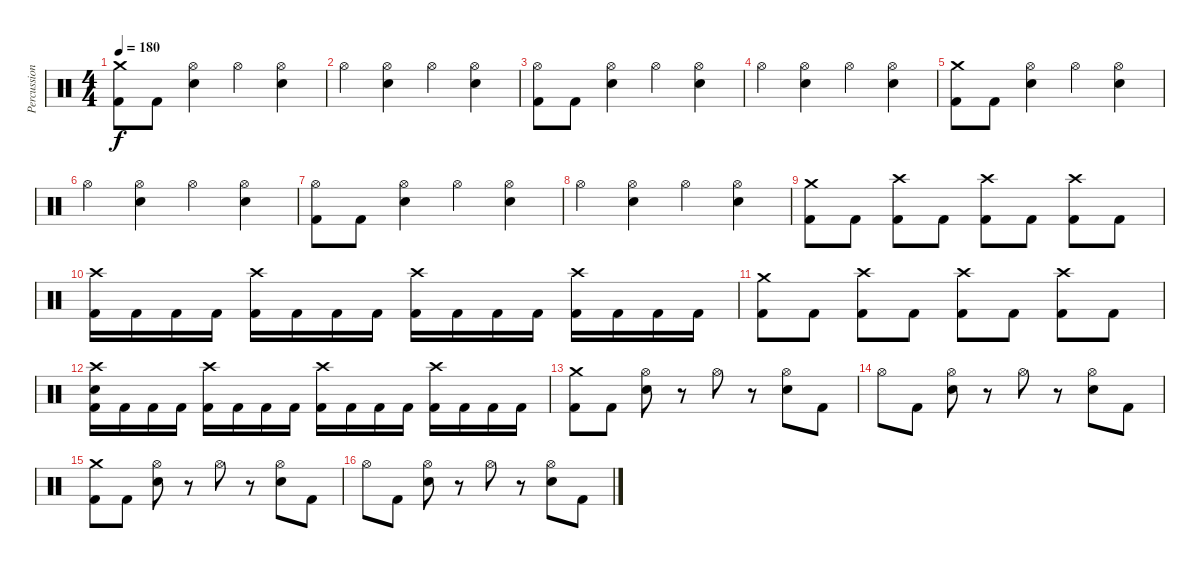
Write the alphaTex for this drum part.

\track ("Percussion" "Percussion") {instrument percussion}
\staff {score}
\articulation defaults
\ts (4 4)
\tempo 180
\clef neutral
\ks c
("Crash medium (hit)" "Kick (hit) 2").8{dy f} "Kick (hit) 2".8 ("Hi-Hat (open)" "Snare (hit) 2").4 "Hi-Hat (open)".4 ("Hi-Hat (open)" "Snare (hit) 2").4 |
"Hi-Hat (open)".4 ("Hi-Hat (open)" "Snare (hit) 2").4 "Hi-Hat (open)".4 ("Hi-Hat (open)" "Snare (hit) 2").4 |
("Hi-Hat (open)" "Kick (hit) 2").8 "Kick (hit) 2".8 ("Hi-Hat (open)" "Snare (hit) 2").4 "Hi-Hat (open)".4 ("Hi-Hat (open)" "Snare (hit) 2").4 |
"Hi-Hat (open)".4 ("Hi-Hat (open)" "Snare (hit) 2").4 "Hi-Hat (open)".4 ("Hi-Hat (open)" "Snare (hit) 2").4 |
("Crash medium (hit)" "Kick (hit) 2").8 "Kick (hit) 2".8 ("Hi-Hat (open)" "Snare (hit) 2").4 "Hi-Hat (open)".4 ("Hi-Hat (open)" "Snare (hit) 2").4 |
"Hi-Hat (open)".4 ("Hi-Hat (open)" "Snare (hit) 2").4 "Hi-Hat (open)".4 ("Hi-Hat (open)" "Snare (hit) 2").4 |
("Hi-Hat (open)" "Kick (hit) 2").8 "Kick (hit) 2".8 ("Hi-Hat (open)" "Snare (hit) 2").4 "Hi-Hat (open)".4 ("Hi-Hat (open)" "Snare (hit) 2").4 |
"Hi-Hat (open)".4 ("Hi-Hat (open)" "Snare (hit) 2").4 "Hi-Hat (open)".4 ("Hi-Hat (open)" "Snare (hit) 2").4 |
("Crash medium (hit)" "Kick (hit) 2").8 "Kick (hit) 2".8 ("Crash high (hit)" "Kick (hit) 2").8 "Kick (hit) 2".8 ("Crash high (hit)" "Kick (hit) 2").8 "Kick (hit) 2".8 ("Crash high (hit)" "Kick (hit) 2").8 "Kick (hit) 2".8 |
("Crash high (hit)" "Kick (hit) 2").16 "Kick (hit) 2".16 "Kick (hit) 2".16 "Kick (hit) 2".16 ("Crash high (hit)" "Kick (hit) 2").16 "Kick (hit) 2".16 "Kick (hit) 2".16 "Kick (hit) 2".16 ("Crash high (hit)" "Kick (hit) 2").16 "Kick (hit) 2".16 "Kick (hit) 2".16 "Kick (hit) 2".16 ("Crash high (hit)" "Kick (hit) 2").16 "Kick (hit) 2".16 "Kick (hit) 2".16 "Kick (hit) 2".16 |
("Crash medium (hit)" "Kick (hit) 2").8 "Kick (hit) 2".8 ("Crash high (hit)" "Kick (hit) 2").8 "Kick (hit) 2".8 ("Crash high (hit)" "Kick (hit) 2").8 "Kick (hit) 2".8 ("Crash high (hit)" "Kick (hit) 2").8 "Kick (hit) 2".8 |
("Crash high (hit)" "Snare (hit) 2" "Kick (hit) 2").16 "Kick (hit) 2".16 "Kick (hit) 2".16 "Kick (hit) 2".16 ("Crash high (hit)" "Kick (hit) 2").16 "Kick (hit) 2".16 "Kick (hit) 2".16 "Kick (hit) 2".16 ("Crash high (hit)" "Kick (hit) 2").16 "Kick (hit) 2".16 "Kick (hit) 2".16 "Kick (hit) 2".16 ("Crash high (hit)" "Kick (hit) 2").16 "Kick (hit) 2".16 "Kick (hit) 2".16 "Kick (hit) 2".16 |
("Crash medium (hit)" "Kick (hit) 2").8 "Kick (hit) 2".8 ("Hi-Hat (open)" "Snare (hit) 2").8 r.8 "Hi-Hat (open)".8 r.8 ("Hi-Hat (open)" "Snare (hit) 2").8 "Kick (hit) 2".8 |
"Hi-Hat (open)".8 "Kick (hit) 2".8 ("Hi-Hat (open)" "Snare (hit) 2").8 r.8 "Hi-Hat (open)".8 r.8 ("Hi-Hat (open)" "Snare (hit) 2").8 "Kick (hit) 2".8 |
("Crash medium (hit)" "Kick (hit) 2").8 "Kick (hit) 2".8 ("Hi-Hat (open)" "Snare (hit) 2").8 r.8 "Hi-Hat (open)".8 r.8 ("Hi-Hat (open)" "Snare (hit) 2").8 "Kick (hit) 2".8 |
"Hi-Hat (open)".8 "Kick (hit) 2".8 ("Hi-Hat (open)" "Snare (hit) 2").8 r.8 "Hi-Hat (open)".8 r.8 ("Hi-Hat (open)" "Snare (hit) 2").8 "Kick (hit) 2".8
